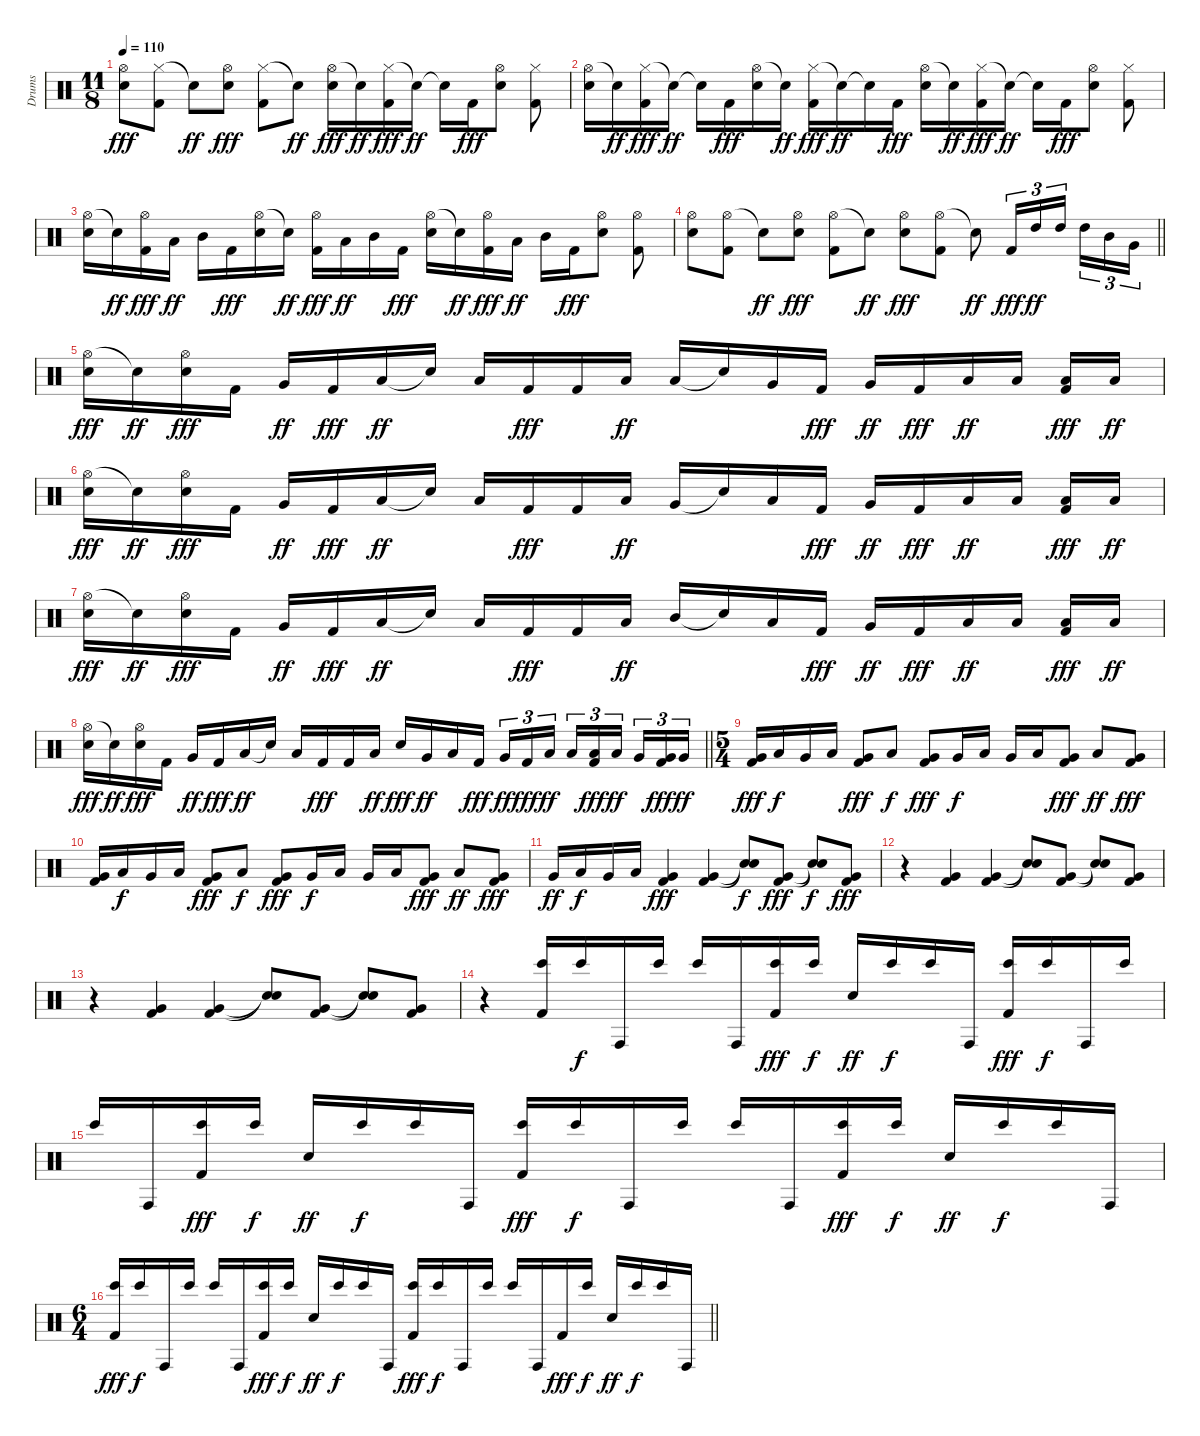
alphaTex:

\track ("Drums" "Drums") {instrument percussion}
\staff {score}
\articulation defaults
\ts (11 8)
\section ("" "")
\tempo 110
\clef neutral
\ks c
("Hi-Hat (open)" "Snare (hit) 2").8{dy fff} ("Hi-Hat (closed)" "Kick (hit) 2").8 "Snare (hit)"{t}.8{dy ff} ("Hi-Hat (open)" "Snare (hit) 2").8{dy fff} ("Hi-Hat (closed)" "Kick (hit) 2").8 "Snare (hit)"{t}.8{dy ff} ("Hi-Hat (open)" "Snare (hit) 2").16{dy fff} "Snare (hit)"{t}.16{dy ff} ("Hi-Hat (closed)" "Kick (hit) 2").16{dy fff} "Snare (hit)"{t}.16{dy ff} "Snare (hit)"{t}.16 "Kick (hit) 2".16{dy fff} ("Hi-Hat (open)" "Snare (hit) 2").8 ("Hi-Hat (closed)" "Kick (hit) 2").8 |
("Hi-Hat (open)" "Snare (hit) 2").16 "Snare (hit)"{t}.16{dy ff} ("Hi-Hat (closed)" "Kick (hit) 2").16{dy fff} "Snare (hit)"{t}.16{dy ff} "Snare (hit)"{t}.16 "Kick (hit) 2".16{dy fff} ("Hi-Hat (open)" "Snare (hit) 2").16 "Snare (hit)"{t}.16{dy ff} ("Hi-Hat (closed)" "Kick (hit) 2").16{dy fff} "Snare (hit)"{t}.16{dy ff} "Snare (hit)"{t}.16 "Kick (hit) 2".16{dy fff} ("Hi-Hat (open)" "Snare (hit) 2").16 "Snare (hit)"{t}.16{dy ff} ("Hi-Hat (closed)" "Kick (hit) 2").16{dy fff} "Snare (hit)"{t}.16{dy ff} "Snare (hit)"{t}.16 "Kick (hit) 2".16{dy fff} ("Hi-Hat (open)" "Snare (hit) 2").8 ("Hi-Hat (closed)" "Kick (hit) 2").8 |
("Hi-Hat (open)" "Snare (hit) 2").16 "Snare (hit)"{t}.16{dy ff} ("Hi-Hat (open)" "Kick (hit) 2").16{dy fff} "Low Tom (hit)".16{dy ff} "Mid Tom (hit)".16 "Kick (hit) 2".16{dy fff} ("Hi-Hat (open)" "Snare (hit) 2").16 "Snare (hit)"{t}.16{dy ff} ("Hi-Hat (open)" "Kick (hit) 2").16{dy fff} "Low Tom (hit)".16{dy ff} "Mid Tom (hit)".16 "Kick (hit) 2".16{dy fff} ("Hi-Hat (open)" "Snare (hit) 2").16 "Snare (hit)"{t}.16{dy ff} ("Hi-Hat (open)" "Kick (hit) 2").16{dy fff} "Low Tom (hit)".16{dy ff} "Mid Tom (hit)".16 "Kick (hit) 2".16{dy fff} ("Hi-Hat (open)" "Snare (hit) 2").8 ("Hi-Hat (open)" "Kick (hit) 2").8 |
\barLineRight lightlight
("Hi-Hat (open)" "Snare (hit) 2").8 ("Hi-Hat (open)" "Kick (hit) 2").8 "Snare (hit)"{t}.8{dy ff} ("Hi-Hat (open)" "Snare (hit) 2").8{dy fff} ("Hi-Hat (open)" "Kick (hit) 2").8 "Snare (hit)"{t}.8{dy ff} ("Hi-Hat (open)" "Snare (hit) 2").8{dy fff} ("Hi-Hat (open)" "Kick (hit) 2").8 "Snare (hit)"{t}.8{dy ff} "Kick (hit) 2".16{tu (3 2) dy fff} "High Tom (hit)".16{tu (3 2) dy ff} "High Tom (hit)".16{tu (3 2)} "High Tom (hit)".16{tu (3 2)} "Mid Tom (hit)".16{tu (3 2)} "Very Low Tom (hit)".16{tu (3 2)} |
\section ("" "")
("Hi-Hat (open)" "Snare (hit) 2").16{dy fff} "Snare (hit)"{t}.16{dy ff} ("Hi-Hat (open)" "Snare (hit) 2").16{dy fff} "Kick (hit) 2".16 "Very Low Tom (hit)".16{dy ff} "Kick (hit) 2".16{dy fff} "Low Floor Tom (hit)".16{dy ff} "Snare (hit)"{t}.16 "Low Tom (hit)".16 "Kick (hit) 2".16{dy fff} "Kick (hit) 2".16 "Low Floor Tom (hit)".16{dy ff} "Low Tom (hit)".16 "Snare (hit)"{t}.16 "Very Low Tom (hit)".16 "Kick (hit) 2".16{dy fff} "Very Low Tom (hit)".16{dy ff} "Kick (hit) 2".16{dy fff} "Low Floor Tom (hit)".16{dy ff} "Low Floor Tom (hit)".16 ("Low Tom (hit)" "Kick (hit) 2").16{dy fff} "Low Tom (hit)".16{dy ff} |
("Hi-Hat (open)" "Snare (hit) 2").16{dy fff} "Snare (hit)"{t}.16{dy ff} ("Hi-Hat (open)" "Snare (hit) 2").16{dy fff} "Kick (hit) 2".16 "Very Low Tom (hit)".16{dy ff} "Kick (hit) 2".16{dy fff} "Low Floor Tom (hit)".16{dy ff} "Snare (hit)"{t}.16 "Low Tom (hit)".16 "Kick (hit) 2".16{dy fff} "Kick (hit) 2".16 "Low Floor Tom (hit)".16{dy ff} "Very Low Tom (hit)".16 "Snare (hit)"{t}.16 "Low Floor Tom (hit)".16 "Kick (hit) 2".16{dy fff} "Very Low Tom (hit)".16{dy ff} "Kick (hit) 2".16{dy fff} "Low Floor Tom (hit)".16{dy ff} "Low Floor Tom (hit)".16 ("Low Tom (hit)" "Kick (hit) 2").16{dy fff} "Low Tom (hit)".16{dy ff} |
("Hi-Hat (open)" "Snare (hit) 2").16{dy fff} "Snare (hit)"{t}.16{dy ff} ("Hi-Hat (open)" "Snare (hit) 2").16{dy fff} "Kick (hit) 2".16 "Very Low Tom (hit)".16{dy ff} "Kick (hit) 2".16{dy fff} "Low Floor Tom (hit)".16{dy ff} "Snare (hit)"{t}.16 "Low Tom (hit)".16 "Kick (hit) 2".16{dy fff} "Kick (hit) 2".16 "Low Floor Tom (hit)".16{dy ff} "Mid Tom (hit)".16 "Snare (hit)"{t}.16 "Low Tom (hit)".16 "Kick (hit) 2".16{dy fff} "Very Low Tom (hit)".16{dy ff} "Kick (hit) 2".16{dy fff} "Low Floor Tom (hit)".16{dy ff} "Low Floor Tom (hit)".16 ("Low Tom (hit)" "Kick (hit) 2").16{dy fff} "Low Tom (hit)".16{dy ff} |
\barLineRight lightlight
("Hi-Hat (open)" "Snare (hit) 2").16{dy fff} "Snare (hit)"{t}.16{dy ff} ("Hi-Hat (open)" "Snare (hit) 2").16{dy fff} "Kick (hit) 2".16 "Very Low Tom (hit)".16{dy ff} "Kick (hit) 2".16{dy fff} "Low Floor Tom (hit)".16{dy ff} "Snare (hit)"{t}.16 "Low Tom (hit)".16 "Kick (hit) 2".16{dy fff} "Kick (hit) 2".16 "Low Floor Tom (hit)".16{dy ff} "Snare (hit) 2".16{dy fff} "Very Low Tom (hit)".16{dy ff} "Low Floor Tom (hit)".16 "Kick (hit) 2".16{dy fff} "Very Low Tom (hit)".16{tu (3 2) dy ff} "Kick (hit) 2".16{tu (3 2) dy fff} "Low Floor Tom (hit)".16{tu (3 2) dy ff} "Low Floor Tom (hit)".16{tu (3 2)} ("Low Tom (hit)" "Kick (hit) 2").16{tu (3 2) dy fff} "Low Tom (hit)".16{tu (3 2) dy ff} "Very Low Tom (hit)".16{tu (3 2)} ("Very Low Tom (hit)" "Kick (hit) 2").16{tu (3 2) dy fff} "Very Low Tom (hit)".16{tu (3 2) dy ff} |
\ts (5 4)
\section ("" "")
("Very Low Tom (hit)" "Kick (hit) 2").16{dy fff} "Low Tom (hit)".16{dy f} "Very Low Tom (hit)".16 "Low Floor Tom (hit)".16 ("Very Low Tom (hit)" "Kick (hit) 2").8{dy fff} "Low Floor Tom (hit)".8{dy f} ("Very Low Tom (hit)" "Kick (hit) 2").8{dy fff} "Very Low Tom (hit)".16{dy f} "Low Tom (hit)".16 "Very Low Tom (hit)".16 "Low Floor Tom (hit)".16 ("Very Low Tom (hit)" "Kick (hit) 2").8{dy fff} "Low Floor Tom (hit)".8{dy ff} ("Very Low Tom (hit)" "Kick (hit) 2").8{dy fff} |
("Very Low Tom (hit)" "Kick (hit) 2").16 "Low Tom (hit)".16{dy f} "Very Low Tom (hit)".16 "Low Floor Tom (hit)".16 ("Very Low Tom (hit)" "Kick (hit) 2").8{dy fff} "Low Floor Tom (hit)".8{dy f} ("Very Low Tom (hit)" "Kick (hit) 2").8{dy fff} "Very Low Tom (hit)".16{dy f} "Low Tom (hit)".16 "Very Low Tom (hit)".16 "Low Floor Tom (hit)".16 ("Very Low Tom (hit)" "Kick (hit) 2").8{dy fff} "Low Floor Tom (hit)".8{dy ff} ("Very Low Tom (hit)" "Kick (hit) 2").8{dy fff} |
"Very Low Tom (hit)".16{dy ff} "Low Tom (hit)".16{dy f} "Very Low Tom (hit)".16 "Low Floor Tom (hit)".16 ("Very Low Tom (hit)" "Kick (hit) 2").4{dy fff} ("Very Low Tom (hit)" "Kick (hit) 2").4 ("Snare (hit)"{t} "Snare (hit)"{t}).8{dy f} ("Very Low Tom (hit)" "Kick (hit) 2").8{dy fff} ("Snare (hit)"{t} "Snare (hit)"{t}).8{dy f} ("Very Low Tom (hit)" "Kick (hit) 2").8{dy fff} |
r.4 ("Very Low Tom (hit)" "Kick (hit) 2").4 ("Very Low Tom (hit)" "Kick (hit) 2").4 ("Snare (hit)"{t} "Snare (hit)"{t}).8 ("Very Low Tom (hit)" "Kick (hit) 2").8 ("Snare (hit)"{t} "Snare (hit)"{t}).8 ("Very Low Tom (hit)" "Kick (hit) 2").8 |
r.4 ("Very Low Tom (hit)" "Kick (hit) 2").4 ("Very Low Tom (hit)" "Kick (hit) 2").4 ("Snare (hit)"{t} "Snare (hit)"{t}).8 ("Very Low Tom (hit)" "Kick (hit) 2").8 ("Snare (hit)"{t} "Snare (hit)"{t}).8 ("Very Low Tom (hit)" "Kick (hit) 2").8 |
r.4 ("Bongo High (hit)" "Kick (hit) 2").16 "Bongo High (hit)".16{dy f} "Conga high (hit)".16 "Bongo High (hit)".16 "Bongo High (hit)".16 "Conga high (hit)".16 ("Bongo High (hit)" "Kick (hit) 2").16{dy fff} "Bongo High (hit)".16{dy f} "Snare (hit) 2".16{dy ff} "Bongo High (hit)".16{dy f} "Bongo High (hit)".16 "Conga high (hit)".16 ("Bongo High (hit)" "Kick (hit) 2").16{dy fff} "Bongo High (hit)".16{dy f} "Conga high (hit)".16 "Bongo High (hit)".16 |
"Bongo High (hit)".16 "Conga high (hit)".16 ("Bongo High (hit)" "Kick (hit) 2").16{dy fff} "Bongo High (hit)".16{dy f} "Snare (hit) 2".16{dy ff} "Bongo High (hit)".16{dy f} "Bongo High (hit)".16 "Conga high (hit)".16 ("Bongo High (hit)" "Kick (hit) 2").16{dy fff} "Bongo High (hit)".16{dy f} "Conga high (hit)".16 "Bongo High (hit)".16 "Bongo High (hit)".16 "Conga high (hit)".16 ("Bongo High (hit)" "Kick (hit) 2").16{dy fff} "Bongo High (hit)".16{dy f} "Snare (hit) 2".16{dy ff} "Bongo High (hit)".16{dy f} "Bongo High (hit)".16 "Conga high (hit)".16 |
\ts (6 4)
\barLineRight lightlight
("Bongo High (hit)" "Kick (hit) 2").16{dy fff} "Bongo High (hit)".16{dy f} "Conga high (hit)".16 "Bongo High (hit)".16 "Bongo High (hit)".16 "Conga high (hit)".16 ("Bongo High (hit)" "Kick (hit) 2").16{dy fff} "Bongo High (hit)".16{dy f} "Snare (hit) 2".16{dy ff} "Bongo High (hit)".16{dy f} "Bongo High (hit)".16 "Conga high (hit)".16 ("Bongo High (hit)" "Kick (hit) 2").16{dy fff} "Bongo High (hit)".16{dy f} "Conga high (hit)".16 "Bongo High (hit)".16 "Bongo High (hit)".16 "Conga high (hit)".16 "Kick (hit) 2".16{dy fff} "Bongo High (hit)".16{dy f} "Snare (hit) 2".16{dy ff} "Bongo High (hit)".16{dy f} "Bongo High (hit)".16 "Conga high (hit)".16
